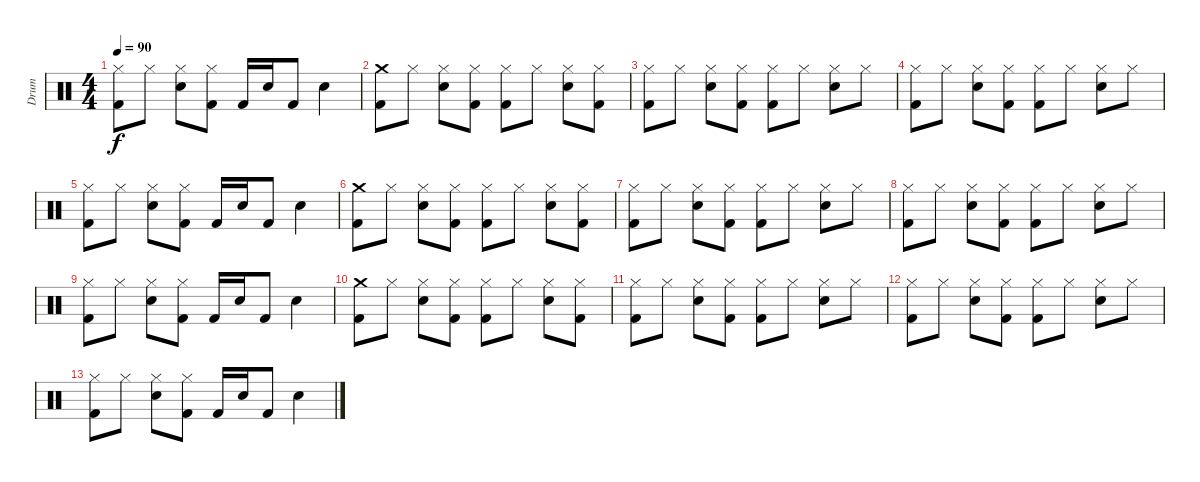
\track ("Drum" "Drum") {instrument percussion}
\staff {score}
\articulation defaults
\ts (4 4)
\tempo 90
\clef neutral
\ks c
("Hi-Hat (closed)" "Kick (hit) 2").8{dy f} "Hi-Hat (closed)".8 ("Hi-Hat (closed)" "Snare (hit) 2").8 ("Hi-Hat (closed)" "Kick (hit) 2").8 "Kick (hit) 2".16 "Snare (hit) 2".16 "Kick (hit) 2".8 "Snare (hit) 2".4 |
("Crash medium (hit)" "Kick (hit) 2").8 "Hi-Hat (closed)".8 ("Hi-Hat (closed)" "Snare (hit) 2").8 ("Hi-Hat (closed)" "Kick (hit) 2").8 ("Hi-Hat (closed)" "Kick (hit) 2").8 "Hi-Hat (closed)".8 ("Hi-Hat (closed)" "Snare (hit) 2").8 ("Hi-Hat (closed)" "Kick (hit) 2").8 |
("Hi-Hat (closed)" "Kick (hit) 2").8 "Hi-Hat (closed)".8 ("Hi-Hat (closed)" "Snare (hit) 2").8 ("Hi-Hat (closed)" "Kick (hit) 2").8 ("Hi-Hat (closed)" "Kick (hit) 2").8 "Hi-Hat (closed)".8 ("Hi-Hat (closed)" "Snare (hit) 2").8 "Hi-Hat (closed)".8 |
("Hi-Hat (closed)" "Kick (hit) 2").8 "Hi-Hat (closed)".8 ("Hi-Hat (closed)" "Snare (hit) 2").8 ("Hi-Hat (closed)" "Kick (hit) 2").8 ("Hi-Hat (closed)" "Kick (hit) 2").8 "Hi-Hat (closed)".8 ("Hi-Hat (closed)" "Snare (hit) 2").8 "Hi-Hat (closed)".8 |
("Hi-Hat (closed)" "Kick (hit) 2").8 "Hi-Hat (closed)".8 ("Hi-Hat (closed)" "Snare (hit) 2").8 ("Hi-Hat (closed)" "Kick (hit) 2").8 "Kick (hit) 2".16 "Snare (hit) 2".16 "Kick (hit) 2".8 "Snare (hit) 2".4 |
("Crash medium (hit)" "Kick (hit) 2").8 "Hi-Hat (closed)".8 ("Hi-Hat (closed)" "Snare (hit) 2").8 ("Hi-Hat (closed)" "Kick (hit) 2").8 ("Hi-Hat (closed)" "Kick (hit) 2").8 "Hi-Hat (closed)".8 ("Hi-Hat (closed)" "Snare (hit) 2").8 ("Hi-Hat (closed)" "Kick (hit) 2").8 |
("Hi-Hat (closed)" "Kick (hit) 2").8 "Hi-Hat (closed)".8 ("Hi-Hat (closed)" "Snare (hit) 2").8 ("Hi-Hat (closed)" "Kick (hit) 2").8 ("Hi-Hat (closed)" "Kick (hit) 2").8 "Hi-Hat (closed)".8 ("Hi-Hat (closed)" "Snare (hit) 2").8 "Hi-Hat (closed)".8 |
("Hi-Hat (closed)" "Kick (hit) 2").8 "Hi-Hat (closed)".8 ("Hi-Hat (closed)" "Snare (hit) 2").8 ("Hi-Hat (closed)" "Kick (hit) 2").8 ("Hi-Hat (closed)" "Kick (hit) 2").8 "Hi-Hat (closed)".8 ("Hi-Hat (closed)" "Snare (hit) 2").8 "Hi-Hat (closed)".8 |
("Hi-Hat (closed)" "Kick (hit) 2").8 "Hi-Hat (closed)".8 ("Hi-Hat (closed)" "Snare (hit) 2").8 ("Hi-Hat (closed)" "Kick (hit) 2").8 "Kick (hit) 2".16 "Snare (hit) 2".16 "Kick (hit) 2".8 "Snare (hit) 2".4 |
("Crash medium (hit)" "Kick (hit) 2").8 "Hi-Hat (closed)".8 ("Hi-Hat (closed)" "Snare (hit) 2").8 ("Hi-Hat (closed)" "Kick (hit) 2").8 ("Hi-Hat (closed)" "Kick (hit) 2").8 "Hi-Hat (closed)".8 ("Hi-Hat (closed)" "Snare (hit) 2").8 ("Hi-Hat (closed)" "Kick (hit) 2").8 |
("Hi-Hat (closed)" "Kick (hit) 2").8 "Hi-Hat (closed)".8 ("Hi-Hat (closed)" "Snare (hit) 2").8 ("Hi-Hat (closed)" "Kick (hit) 2").8 ("Hi-Hat (closed)" "Kick (hit) 2").8 "Hi-Hat (closed)".8 ("Hi-Hat (closed)" "Snare (hit) 2").8 "Hi-Hat (closed)".8 |
("Hi-Hat (closed)" "Kick (hit) 2").8 "Hi-Hat (closed)".8 ("Hi-Hat (closed)" "Snare (hit) 2").8 ("Hi-Hat (closed)" "Kick (hit) 2").8 ("Hi-Hat (closed)" "Kick (hit) 2").8 "Hi-Hat (closed)".8 ("Hi-Hat (closed)" "Snare (hit) 2").8 "Hi-Hat (closed)".8 |
("Hi-Hat (closed)" "Kick (hit) 2").8 "Hi-Hat (closed)".8 ("Hi-Hat (closed)" "Snare (hit) 2").8 ("Hi-Hat (closed)" "Kick (hit) 2").8 "Kick (hit) 2".16 "Snare (hit) 2".16 "Kick (hit) 2".8 "Snare (hit) 2".4
